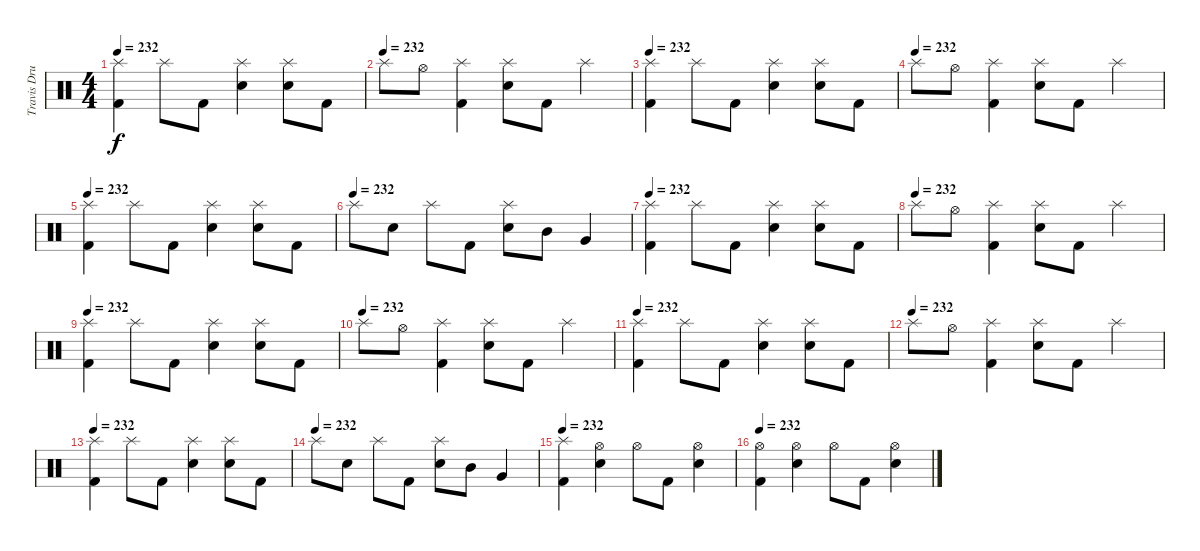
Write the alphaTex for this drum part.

\track ("Travis Drums" "Travis Dru") {instrument percussion}
\staff {score}
\articulation defaults
\ts (4 4)
\tempo 232
\clef neutral
\ks c
("Splash (hit)" "Kick (hit) 2").4{dy f} "Splash (hit)".8 "Kick (hit) 2".8 ("Splash (hit)" "Electric Snare (hit)").4 ("Splash (hit)" "Electric Snare (hit)").8 "Kick (hit) 2".8 |
\tempo (232)
"Splash (hit)".8 "Hi-Hat (open)".8 ("Splash (hit)" "Kick (hit) 2").4 ("Splash (hit)" "Electric Snare (hit)").8 "Kick (hit) 2".8 "Splash (hit)".4 |
\tempo 232
("Splash (hit)" "Kick (hit) 2").4 "Splash (hit)".8 "Kick (hit) 2".8 ("Splash (hit)" "Electric Snare (hit)").4 ("Splash (hit)" "Electric Snare (hit)").8 "Kick (hit) 2".8 |
\tempo (232)
"Splash (hit)".8 "Hi-Hat (open)".8 ("Splash (hit)" "Kick (hit) 2").4 ("Splash (hit)" "Electric Snare (hit)").8 "Kick (hit) 2".8 "Splash (hit)".4 |
\tempo 232
("Splash (hit)" "Kick (hit) 2").4 "Splash (hit)".8 "Kick (hit) 2".8 ("Splash (hit)" "Electric Snare (hit)").4 ("Splash (hit)" "Electric Snare (hit)").8 "Kick (hit) 2".8 |
\tempo (232)
"Splash (hit)".8 "Electric Snare (hit)".8 "Splash (hit)".8 "Kick (hit) 2".8 ("Splash (hit)" "Electric Snare (hit)").8 "Mid Tom (hit)".8 "Very Low Tom (hit)".4 |
\tempo 232
("Splash (hit)" "Kick (hit) 2").4 "Splash (hit)".8 "Kick (hit) 2".8 ("Splash (hit)" "Electric Snare (hit)").4 ("Splash (hit)" "Electric Snare (hit)").8 "Kick (hit) 2".8 |
\tempo (232)
"Splash (hit)".8 "Hi-Hat (open)".8 ("Splash (hit)" "Kick (hit) 2").4 ("Splash (hit)" "Electric Snare (hit)").8 "Kick (hit) 2".8 "Splash (hit)".4 |
\tempo 232
("Splash (hit)" "Kick (hit) 2").4 "Splash (hit)".8 "Kick (hit) 2".8 ("Splash (hit)" "Electric Snare (hit)").4 ("Splash (hit)" "Electric Snare (hit)").8 "Kick (hit) 2".8 |
\tempo (232)
"Splash (hit)".8 "Hi-Hat (open)".8 ("Splash (hit)" "Kick (hit) 2").4 ("Splash (hit)" "Electric Snare (hit)").8 "Kick (hit) 2".8 "Splash (hit)".4 |
\tempo 232
("Splash (hit)" "Kick (hit) 2").4 "Splash (hit)".8 "Kick (hit) 2".8 ("Splash (hit)" "Electric Snare (hit)").4 ("Splash (hit)" "Electric Snare (hit)").8 "Kick (hit) 2".8 |
\tempo (232)
"Splash (hit)".8 "Hi-Hat (open)".8 ("Splash (hit)" "Kick (hit) 2").4 ("Splash (hit)" "Electric Snare (hit)").8 "Kick (hit) 2".8 "Splash (hit)".4 |
\tempo 232
("Splash (hit)" "Kick (hit) 2").4 "Splash (hit)".8 "Kick (hit) 2".8 ("Splash (hit)" "Electric Snare (hit)").4 ("Splash (hit)" "Electric Snare (hit)").8 "Kick (hit) 2".8 |
\tempo (232)
"Splash (hit)".8 "Electric Snare (hit)".8 "Splash (hit)".8 "Kick (hit) 2".8 ("Splash (hit)" "Electric Snare (hit)").8 "Mid Tom (hit)".8 "Very Low Tom (hit)".4 |
\tempo 232
("Splash (hit)" "Kick (hit) 2").4 ("Hi-Hat (open)" "Electric Snare (hit)").4 "Hi-Hat (open)".8 "Kick (hit) 2".8 ("Hi-Hat (open)" "Electric Snare (hit)").4 |
\tempo 232
("Hi-Hat (open)" "Kick (hit) 2").4 ("Hi-Hat (open)" "Electric Snare (hit)").4 "Hi-Hat (open)".8 "Kick (hit) 2".8 ("Hi-Hat (open)" "Electric Snare (hit)").4
